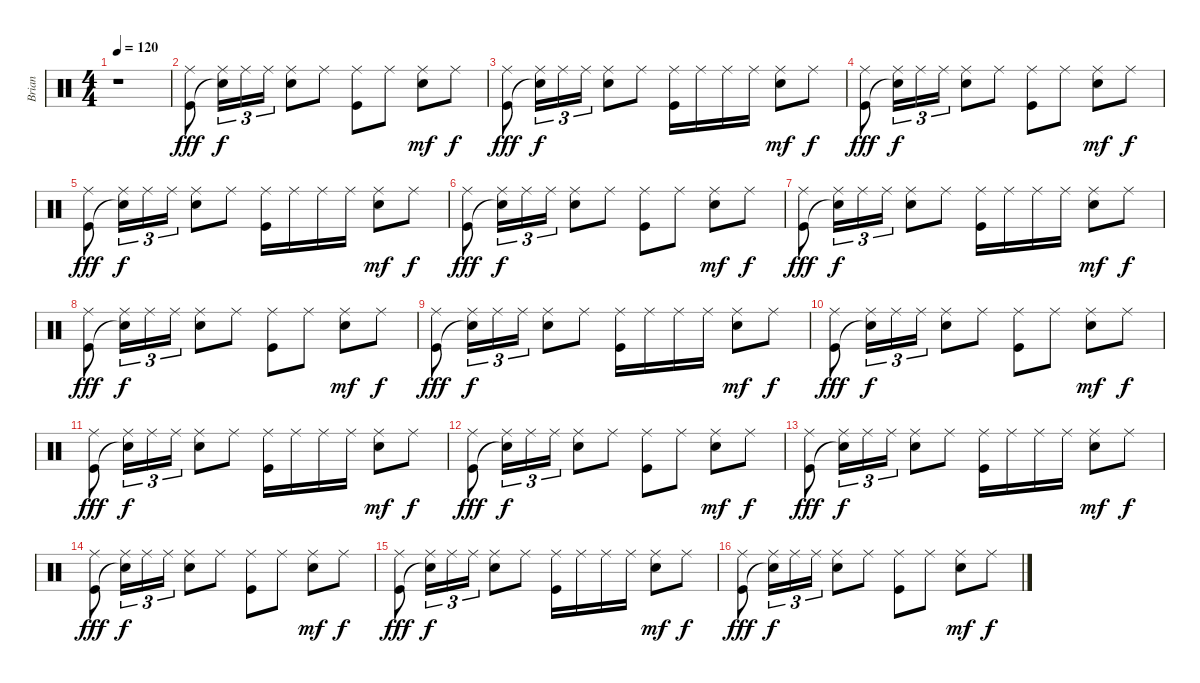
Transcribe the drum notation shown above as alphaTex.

\track ("Brian" "Brian") {instrument percussion}
\staff {score}
\articulation defaults
\ts (4 4)
\tempo 120
\clef neutral
\ks c
r.1{dy fff} |
("Ride (middle)" "Kick (hit)").8 ("Ride (middle)" "Snare (hit)"{t}).16{tu (3 2) dy f} "Ride (middle)".16{tu (3 2)} "Ride (middle)".16{tu (3 2)} ("Ride (middle)" "Snare (hit) 2").8 "Ride (middle)".8 ("Ride (middle)" "Kick (hit)").8 "Ride (middle)".8 ("Ride (middle)" "Snare (hit) 2").8{dy mf} "Ride (middle)".8{dy f} |
("Ride (middle)" "Kick (hit)").8{dy fff} ("Ride (middle)" "Snare (hit)"{t}).16{tu (3 2) dy f} "Ride (middle)".16{tu (3 2)} "Ride (middle)".16{tu (3 2)} ("Ride (middle)" "Snare (hit) 2").8 "Ride (middle)".8 ("Ride (middle)" "Kick (hit)").16 "Ride (middle)".16 "Ride (middle)".16 "Ride (middle)".16 ("Ride (middle)" "Snare (hit) 2").8{dy mf} "Ride (middle)".8{dy f} |
("Ride (middle)" "Kick (hit)").8{dy fff} ("Ride (middle)" "Snare (hit)"{t}).16{tu (3 2) dy f} "Ride (middle)".16{tu (3 2)} "Ride (middle)".16{tu (3 2)} ("Ride (middle)" "Snare (hit) 2").8 "Ride (middle)".8 ("Ride (middle)" "Kick (hit)").8 "Ride (middle)".8 ("Ride (middle)" "Snare (hit) 2").8{dy mf} "Ride (middle)".8{dy f} |
("Ride (middle)" "Kick (hit)").8{dy fff} ("Ride (middle)" "Snare (hit)"{t}).16{tu (3 2) dy f} "Ride (middle)".16{tu (3 2)} "Ride (middle)".16{tu (3 2)} ("Ride (middle)" "Snare (hit) 2").8 "Ride (middle)".8 ("Ride (middle)" "Kick (hit)").16 "Ride (middle)".16 "Ride (middle)".16 "Ride (middle)".16 ("Ride (middle)" "Snare (hit) 2").8{dy mf} "Ride (middle)".8{dy f} |
("Ride (middle)" "Kick (hit)").8{dy fff} ("Ride (middle)" "Snare (hit)"{t}).16{tu (3 2) dy f} "Ride (middle)".16{tu (3 2)} "Ride (middle)".16{tu (3 2)} ("Ride (middle)" "Snare (hit) 2").8 "Ride (middle)".8 ("Ride (middle)" "Kick (hit)").8 "Ride (middle)".8 ("Ride (middle)" "Snare (hit) 2").8{dy mf} "Ride (middle)".8{dy f} |
("Ride (middle)" "Kick (hit)").8{dy fff} ("Ride (middle)" "Snare (hit)"{t}).16{tu (3 2) dy f} "Ride (middle)".16{tu (3 2)} "Ride (middle)".16{tu (3 2)} ("Ride (middle)" "Snare (hit) 2").8 "Ride (middle)".8 ("Ride (middle)" "Kick (hit)").16 "Ride (middle)".16 "Ride (middle)".16 "Ride (middle)".16 ("Ride (middle)" "Snare (hit) 2").8{dy mf} "Ride (middle)".8{dy f} |
("Ride (middle)" "Kick (hit)").8{dy fff} ("Ride (middle)" "Snare (hit)"{t}).16{tu (3 2) dy f} "Ride (middle)".16{tu (3 2)} "Ride (middle)".16{tu (3 2)} ("Ride (middle)" "Snare (hit) 2").8 "Ride (middle)".8 ("Ride (middle)" "Kick (hit)").8 "Ride (middle)".8 ("Ride (middle)" "Snare (hit) 2").8{dy mf} "Ride (middle)".8{dy f} |
("Ride (middle)" "Kick (hit)").8{dy fff} ("Ride (middle)" "Snare (hit)"{t}).16{tu (3 2) dy f} "Ride (middle)".16{tu (3 2)} "Ride (middle)".16{tu (3 2)} ("Ride (middle)" "Snare (hit) 2").8 "Ride (middle)".8 ("Ride (middle)" "Kick (hit)").16 "Ride (middle)".16 "Ride (middle)".16 "Ride (middle)".16 ("Ride (middle)" "Snare (hit) 2").8{dy mf} "Ride (middle)".8{dy f} |
("Ride (middle)" "Kick (hit)").8{dy fff} ("Ride (middle)" "Snare (hit)"{t}).16{tu (3 2) dy f} "Ride (middle)".16{tu (3 2)} "Ride (middle)".16{tu (3 2)} ("Ride (middle)" "Snare (hit) 2").8 "Ride (middle)".8 ("Ride (middle)" "Kick (hit)").8 "Ride (middle)".8 ("Ride (middle)" "Snare (hit) 2").8{dy mf} "Ride (middle)".8{dy f} |
("Ride (middle)" "Kick (hit)").8{dy fff} ("Ride (middle)" "Snare (hit)"{t}).16{tu (3 2) dy f} "Ride (middle)".16{tu (3 2)} "Ride (middle)".16{tu (3 2)} ("Ride (middle)" "Snare (hit) 2").8 "Ride (middle)".8 ("Ride (middle)" "Kick (hit)").16 "Ride (middle)".16 "Ride (middle)".16 "Ride (middle)".16 ("Ride (middle)" "Snare (hit) 2").8{dy mf} "Ride (middle)".8{dy f} |
("Ride (middle)" "Kick (hit)").8{dy fff} ("Ride (middle)" "Snare (hit)"{t}).16{tu (3 2) dy f} "Ride (middle)".16{tu (3 2)} "Ride (middle)".16{tu (3 2)} ("Ride (middle)" "Snare (hit) 2").8 "Ride (middle)".8 ("Ride (middle)" "Kick (hit)").8 "Ride (middle)".8 ("Ride (middle)" "Snare (hit) 2").8{dy mf} "Ride (middle)".8{dy f} |
("Ride (middle)" "Kick (hit)").8{dy fff} ("Ride (middle)" "Snare (hit)"{t}).16{tu (3 2) dy f} "Ride (middle)".16{tu (3 2)} "Ride (middle)".16{tu (3 2)} ("Ride (middle)" "Snare (hit) 2").8 "Ride (middle)".8 ("Ride (middle)" "Kick (hit)").16 "Ride (middle)".16 "Ride (middle)".16 "Ride (middle)".16 ("Ride (middle)" "Snare (hit) 2").8{dy mf} "Ride (middle)".8{dy f} |
("Ride (middle)" "Kick (hit)").8{dy fff} ("Ride (middle)" "Snare (hit)"{t}).16{tu (3 2) dy f} "Ride (middle)".16{tu (3 2)} "Ride (middle)".16{tu (3 2)} ("Ride (middle)" "Snare (hit) 2").8 "Ride (middle)".8 ("Ride (middle)" "Kick (hit)").8 "Ride (middle)".8 ("Ride (middle)" "Snare (hit) 2").8{dy mf} "Ride (middle)".8{dy f} |
("Ride (middle)" "Kick (hit)").8{dy fff} ("Ride (middle)" "Snare (hit)"{t}).16{tu (3 2) dy f} "Ride (middle)".16{tu (3 2)} "Ride (middle)".16{tu (3 2)} ("Ride (middle)" "Snare (hit) 2").8 "Ride (middle)".8 ("Ride (middle)" "Kick (hit)").16 "Ride (middle)".16 "Ride (middle)".16 "Ride (middle)".16 ("Ride (middle)" "Snare (hit) 2").8{dy mf} "Ride (middle)".8{dy f} |
("Ride (middle)" "Kick (hit)").8{dy fff} ("Ride (middle)" "Snare (hit)"{t}).16{tu (3 2) dy f} "Ride (middle)".16{tu (3 2)} "Ride (middle)".16{tu (3 2)} ("Ride (middle)" "Snare (hit) 2").8 "Ride (middle)".8 ("Ride (middle)" "Kick (hit)").8 "Ride (middle)".8 ("Ride (middle)" "Snare (hit) 2").8{dy mf} "Ride (middle)".8{dy f}
